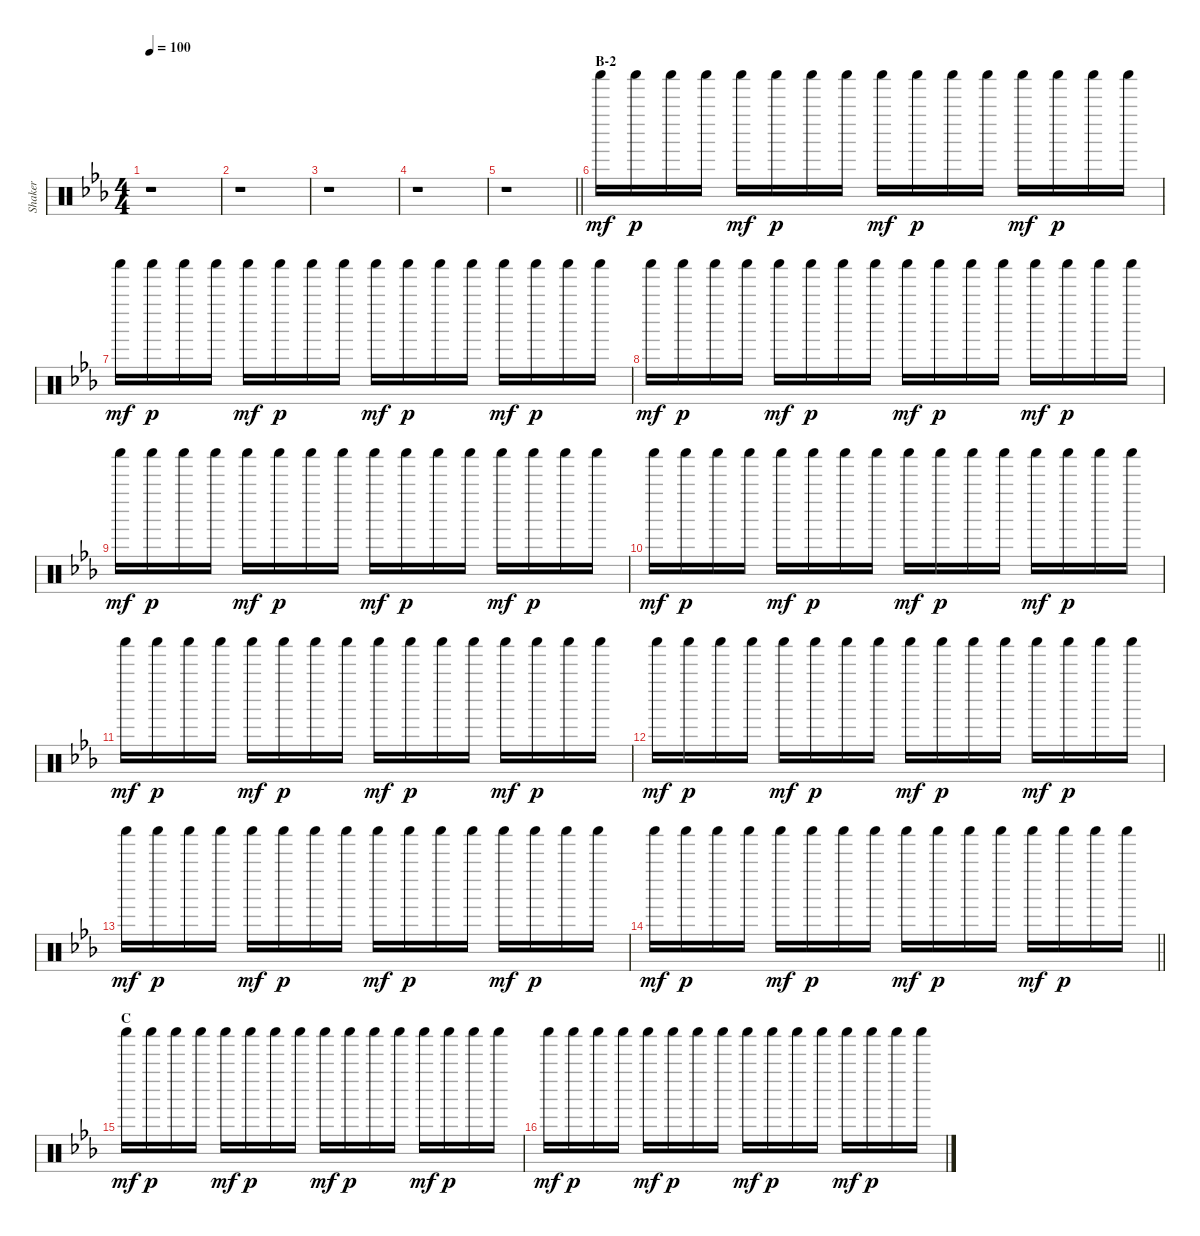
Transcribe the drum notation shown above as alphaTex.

\track ("Shaker" "Shaker") {instrument percussion}
\staff {score}
\articulation defaults
\ts (4 4)
\tempo 100
\clef neutral
\ks eb
r.1{dy mf} |
r.1 |
r.1 |
r.1 |
\barLineRight lightlight
r.1 |
\section ("" "B-2")
"Shaker (hit)".16 "Shaker (hit)".16{dy p} "Shaker (hit)".16 "Shaker (hit)".16 "Shaker (hit)".16{dy mf} "Shaker (hit)".16{dy p} "Shaker (hit)".16 "Shaker (hit)".16 "Shaker (hit)".16{dy mf} "Shaker (hit)".16{dy p} "Shaker (hit)".16 "Shaker (hit)".16 "Shaker (hit)".16{dy mf} "Shaker (hit)".16{dy p} "Shaker (hit)".16 "Shaker (hit)".16 |
"Shaker (hit)".16{dy mf} "Shaker (hit)".16{dy p} "Shaker (hit)".16 "Shaker (hit)".16 "Shaker (hit)".16{dy mf} "Shaker (hit)".16{dy p} "Shaker (hit)".16 "Shaker (hit)".16 "Shaker (hit)".16{dy mf} "Shaker (hit)".16{dy p} "Shaker (hit)".16 "Shaker (hit)".16 "Shaker (hit)".16{dy mf} "Shaker (hit)".16{dy p} "Shaker (hit)".16 "Shaker (hit)".16 |
"Shaker (hit)".16{dy mf} "Shaker (hit)".16{dy p} "Shaker (hit)".16 "Shaker (hit)".16 "Shaker (hit)".16{dy mf} "Shaker (hit)".16{dy p} "Shaker (hit)".16 "Shaker (hit)".16 "Shaker (hit)".16{dy mf} "Shaker (hit)".16{dy p} "Shaker (hit)".16 "Shaker (hit)".16 "Shaker (hit)".16{dy mf} "Shaker (hit)".16{dy p} "Shaker (hit)".16 "Shaker (hit)".16 |
"Shaker (hit)".16{dy mf} "Shaker (hit)".16{dy p} "Shaker (hit)".16 "Shaker (hit)".16 "Shaker (hit)".16{dy mf} "Shaker (hit)".16{dy p} "Shaker (hit)".16 "Shaker (hit)".16 "Shaker (hit)".16{dy mf} "Shaker (hit)".16{dy p} "Shaker (hit)".16 "Shaker (hit)".16 "Shaker (hit)".16{dy mf} "Shaker (hit)".16{dy p} "Shaker (hit)".16 "Shaker (hit)".16 |
"Shaker (hit)".16{dy mf} "Shaker (hit)".16{dy p} "Shaker (hit)".16 "Shaker (hit)".16 "Shaker (hit)".16{dy mf} "Shaker (hit)".16{dy p} "Shaker (hit)".16 "Shaker (hit)".16 "Shaker (hit)".16{dy mf} "Shaker (hit)".16{dy p} "Shaker (hit)".16 "Shaker (hit)".16 "Shaker (hit)".16{dy mf} "Shaker (hit)".16{dy p} "Shaker (hit)".16 "Shaker (hit)".16 |
"Shaker (hit)".16{dy mf} "Shaker (hit)".16{dy p} "Shaker (hit)".16 "Shaker (hit)".16 "Shaker (hit)".16{dy mf} "Shaker (hit)".16{dy p} "Shaker (hit)".16 "Shaker (hit)".16 "Shaker (hit)".16{dy mf} "Shaker (hit)".16{dy p} "Shaker (hit)".16 "Shaker (hit)".16 "Shaker (hit)".16{dy mf} "Shaker (hit)".16{dy p} "Shaker (hit)".16 "Shaker (hit)".16 |
"Shaker (hit)".16{dy mf} "Shaker (hit)".16{dy p} "Shaker (hit)".16 "Shaker (hit)".16 "Shaker (hit)".16{dy mf} "Shaker (hit)".16{dy p} "Shaker (hit)".16 "Shaker (hit)".16 "Shaker (hit)".16{dy mf} "Shaker (hit)".16{dy p} "Shaker (hit)".16 "Shaker (hit)".16 "Shaker (hit)".16{dy mf} "Shaker (hit)".16{dy p} "Shaker (hit)".16 "Shaker (hit)".16 |
"Shaker (hit)".16{dy mf} "Shaker (hit)".16{dy p} "Shaker (hit)".16 "Shaker (hit)".16 "Shaker (hit)".16{dy mf} "Shaker (hit)".16{dy p} "Shaker (hit)".16 "Shaker (hit)".16 "Shaker (hit)".16{dy mf} "Shaker (hit)".16{dy p} "Shaker (hit)".16 "Shaker (hit)".16 "Shaker (hit)".16{dy mf} "Shaker (hit)".16{dy p} "Shaker (hit)".16 "Shaker (hit)".16 |
\barLineRight lightlight "Shaker (hit)".16{dy mf} "Shaker (hit)".16{dy p} "Shaker (hit)".16 "Shaker (hit)".16 "Shaker (hit)".16{dy mf} "Shaker (hit)".16{dy p} "Shaker (hit)".16 "Shaker (hit)".16 "Shaker (hit)".16{dy mf} "Shaker (hit)".16{dy p} "Shaker (hit)".16 "Shaker (hit)".16 "Shaker (hit)".16{dy mf} "Shaker (hit)".16{dy p} "Shaker (hit)".16 "Shaker (hit)".16
|
\section ("" "C")
"Shaker (hit)".16{dy mf} "Shaker (hit)".16{dy p} "Shaker (hit)".16 "Shaker (hit)".16 "Shaker (hit)".16{dy mf} "Shaker (hit)".16{dy p} "Shaker (hit)".16 "Shaker (hit)".16 "Shaker (hit)".16{dy mf} "Shaker (hit)".16{dy p} "Shaker (hit)".16 "Shaker (hit)".16 "Shaker (hit)".16{dy mf} "Shaker (hit)".16{dy p} "Shaker (hit)".16 "Shaker (hit)".16 |
"Shaker (hit)".16{dy mf} "Shaker (hit)".16{dy p} "Shaker (hit)".16 "Shaker (hit)".16 "Shaker (hit)".16{dy mf} "Shaker (hit)".16{dy p} "Shaker (hit)".16 "Shaker (hit)".16 "Shaker (hit)".16{dy mf} "Shaker (hit)".16{dy p} "Shaker (hit)".16 "Shaker (hit)".16 "Shaker (hit)".16{dy mf} "Shaker (hit)".16{dy p} "Shaker (hit)".16 "Shaker (hit)".16
